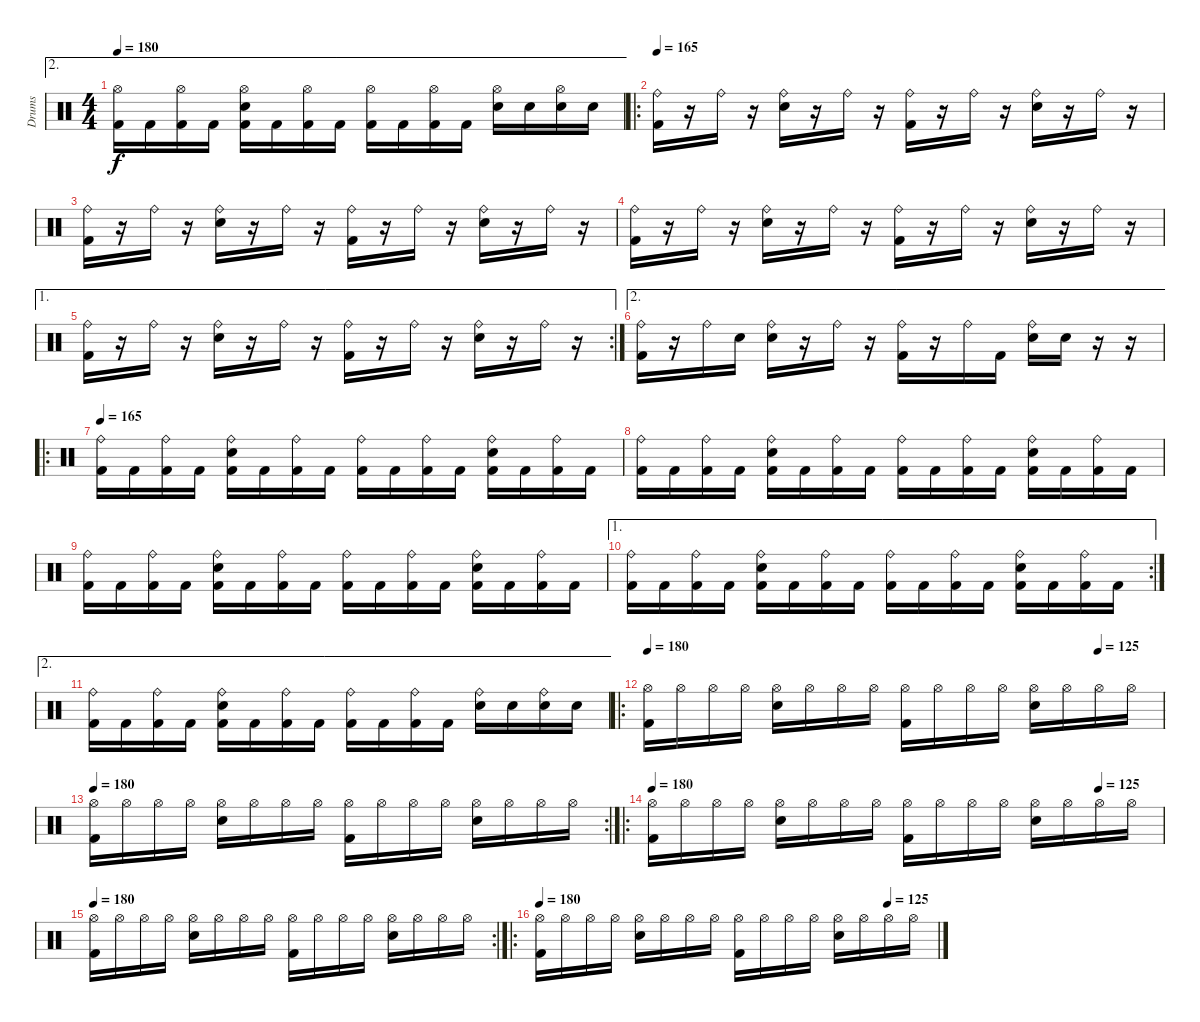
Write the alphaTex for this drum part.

\track ("Drums" "Drums") {instrument percussion}
\staff {score}
\articulation defaults
\ae 2
\ts (4 4)
\tempo 180
\clef neutral
\ks c
("Hi-Hat (open)" "Kick (hit) 2").16{dy f} "Kick (hit) 2".16 ("Hi-Hat (open)" "Kick (hit) 2").16 "Kick (hit) 2".16 ("Hi-Hat (open)" "Snare (hit) 2" "Kick (hit) 2").16 "Kick (hit) 2".16 ("Hi-Hat (open)" "Kick (hit) 2").16 "Kick (hit) 2".16 ("Hi-Hat (open)" "Kick (hit) 2").16 "Kick (hit) 2".16 ("Hi-Hat (open)" "Kick (hit) 2").16 "Kick (hit) 2".16 ("Hi-Hat (open)" "Snare (hit) 2").16 "Snare (hit) 2".16 ("Hi-Hat (open)" "Snare (hit) 2").16 "Snare (hit) 2".16 |
\ro
\tempo 165
("Ride (bell)" "Kick (hit) 2").16 r.16 "Ride (bell)".16 r.16 ("Ride (bell)" "Snare (hit) 2").16 r.16 "Ride (bell)".16 r.16 ("Ride (bell)" "Kick (hit) 2").16 r.16 "Ride (bell)".16 r.16 ("Ride (bell)" "Snare (hit) 2").16 r.16 "Ride (bell)".16 r.16 |
("Ride (bell)" "Kick (hit) 2").16 r.16 "Ride (bell)".16 r.16 ("Ride (bell)" "Snare (hit) 2").16 r.16 "Ride (bell)".16 r.16 ("Ride (bell)" "Kick (hit) 2").16 r.16 "Ride (bell)".16 r.16 ("Ride (bell)" "Snare (hit) 2").16 r.16 "Ride (bell)".16 r.16 |
("Ride (bell)" "Kick (hit) 2").16 r.16 "Ride (bell)".16 r.16 ("Ride (bell)" "Snare (hit) 2").16 r.16 "Ride (bell)".16 r.16 ("Ride (bell)" "Kick (hit) 2").16 r.16 "Ride (bell)".16 r.16 ("Ride (bell)" "Snare (hit) 2").16 r.16 "Ride (bell)".16 r.16 |
\ae 1
\rc 2
("Ride (bell)" "Kick (hit) 2").16 r.16 "Ride (bell)".16 r.16 ("Ride (bell)" "Snare (hit) 2").16 r.16 "Ride (bell)".16 r.16 ("Ride (bell)" "Kick (hit) 2").16 r.16 "Ride (bell)".16 r.16 ("Ride (bell)" "Snare (hit) 2").16 r.16 "Ride (bell)".16 r.16 |
\ae 2
("Ride (bell)" "Kick (hit) 2").16 r.16 "Ride (bell)".16 "Snare (hit) 2".16 ("Ride (bell)" "Snare (hit) 2").16 r.16 "Ride (bell)".16 r.16 ("Ride (bell)" "Kick (hit) 2").16 r.16 "Ride (bell)".16 "Kick (hit) 2".16 ("Ride (bell)" "Snare (hit) 2").16 "Snare (hit) 2".16 r.16 r.16 |
\ro
\tempo 165
("Ride (bell)" "Kick (hit) 2").16 "Kick (hit) 2".16 ("Ride (bell)" "Kick (hit) 2").16 "Kick (hit) 2".16 ("Ride (bell)" "Snare (hit) 2" "Kick (hit) 2").16 "Kick (hit) 2".16 ("Ride (bell)" "Kick (hit) 2").16 "Kick (hit) 2".16 ("Ride (bell)" "Kick (hit) 2").16 "Kick (hit) 2".16 ("Ride (bell)" "Kick (hit) 2").16 "Kick (hit) 2".16 ("Ride (bell)" "Snare (hit) 2" "Kick (hit) 2").16 "Kick (hit) 2".16 ("Ride (bell)" "Kick (hit) 2").16 "Kick (hit) 2".16 |
("Ride (bell)" "Kick (hit) 2").16 "Kick (hit) 2".16 ("Ride (bell)" "Kick (hit) 2").16 "Kick (hit) 2".16 ("Ride (bell)" "Snare (hit) 2" "Kick (hit) 2").16 "Kick (hit) 2".16 ("Ride (bell)" "Kick (hit) 2").16 "Kick (hit) 2".16 ("Ride (bell)" "Kick (hit) 2").16 "Kick (hit) 2".16 ("Ride (bell)" "Kick (hit) 2").16 "Kick (hit) 2".16 ("Ride (bell)" "Snare (hit) 2" "Kick (hit) 2").16 "Kick (hit) 2".16 ("Ride (bell)" "Kick (hit) 2").16 "Kick (hit) 2".16 |
("Ride (bell)" "Kick (hit) 2").16 "Kick (hit) 2".16 ("Ride (bell)" "Kick (hit) 2").16 "Kick (hit) 2".16 ("Ride (bell)" "Snare (hit) 2" "Kick (hit) 2").16 "Kick (hit) 2".16 ("Ride (bell)" "Kick (hit) 2").16 "Kick (hit) 2".16 ("Ride (bell)" "Kick (hit) 2").16 "Kick (hit) 2".16 ("Ride (bell)" "Kick (hit) 2").16 "Kick (hit) 2".16 ("Ride (bell)" "Snare (hit) 2" "Kick (hit) 2").16 "Kick (hit) 2".16 ("Ride (bell)" "Kick (hit) 2").16 "Kick (hit) 2".16 |
\ae 1
\rc 2
("Ride (bell)" "Kick (hit) 2").16 "Kick (hit) 2".16 ("Ride (bell)" "Kick (hit) 2").16 "Kick (hit) 2".16 ("Ride (bell)" "Snare (hit) 2" "Kick (hit) 2").16 "Kick (hit) 2".16 ("Ride (bell)" "Kick (hit) 2").16 "Kick (hit) 2".16 ("Ride (bell)" "Kick (hit) 2").16 "Kick (hit) 2".16 ("Ride (bell)" "Kick (hit) 2").16 "Kick (hit) 2".16 ("Ride (bell)" "Snare (hit) 2" "Kick (hit) 2").16 "Kick (hit) 2".16 ("Ride (bell)" "Kick (hit) 2").16 "Kick (hit) 2".16 |
\ae 2
("Ride (bell)" "Kick (hit) 2").16 "Kick (hit) 2".16 ("Ride (bell)" "Kick (hit) 2").16 "Kick (hit) 2".16 ("Ride (bell)" "Snare (hit) 2" "Kick (hit) 2").16 "Kick (hit) 2".16 ("Ride (bell)" "Kick (hit) 2").16 "Kick (hit) 2".16 ("Ride (bell)" "Kick (hit) 2").16 "Kick (hit) 2".16 ("Ride (bell)" "Kick (hit) 2").16 "Kick (hit) 2".16 ("Ride (bell)" "Snare (hit) 2").16 "Snare (hit) 2".16 ("Ride (bell)" "Snare (hit) 2").16 "Snare (hit) 2".16 |
\ro
\tempo 180
\tempo (125 0.875)
("Hi-Hat (open)" "Kick (hit) 2").16 "Hi-Hat (open)".16 "Hi-Hat (open)".16 "Hi-Hat (open)".16 ("Hi-Hat (open)" "Snare (hit) 2").16 "Hi-Hat (open)".16 "Hi-Hat (open)".16 "Hi-Hat (open)".16 ("Hi-Hat (open)" "Kick (hit) 2").16 "Hi-Hat (open)".16 "Hi-Hat (open)".16 "Hi-Hat (open)".16 ("Hi-Hat (open)" "Snare (hit) 2").16 "Hi-Hat (open)".16 "Hi-Hat (open)".16 "Hi-Hat (open)".16 |
\rc 2
\tempo 180
("Hi-Hat (open)" "Kick (hit) 2").16 "Hi-Hat (open)".16 "Hi-Hat (open)".16 "Hi-Hat (open)".16 ("Hi-Hat (open)" "Snare (hit) 2").16 "Hi-Hat (open)".16 "Hi-Hat (open)".16 "Hi-Hat (open)".16 ("Hi-Hat (open)" "Kick (hit) 2").16 "Hi-Hat (open)".16 "Hi-Hat (open)".16 "Hi-Hat (open)".16 ("Hi-Hat (open)" "Snare (hit) 2").16 "Hi-Hat (open)".16 "Hi-Hat (open)".16 "Hi-Hat (open)".16 |
\ro
\tempo 180
\tempo (125 0.875)
("Hi-Hat (open)" "Kick (hit) 2").16 "Hi-Hat (open)".16 "Hi-Hat (open)".16 "Hi-Hat (open)".16 ("Hi-Hat (open)" "Snare (hit) 2").16 "Hi-Hat (open)".16 "Hi-Hat (open)".16 "Hi-Hat (open)".16 ("Hi-Hat (open)" "Kick (hit) 2").16 "Hi-Hat (open)".16 "Hi-Hat (open)".16 "Hi-Hat (open)".16 ("Hi-Hat (open)" "Snare (hit) 2").16 "Hi-Hat (open)".16 "Hi-Hat (open)".16 "Hi-Hat (open)".16 |
\rc 2
\tempo 180
("Hi-Hat (open)" "Kick (hit) 2").16 "Hi-Hat (open)".16 "Hi-Hat (open)".16 "Hi-Hat (open)".16 ("Hi-Hat (open)" "Snare (hit) 2").16 "Hi-Hat (open)".16 "Hi-Hat (open)".16 "Hi-Hat (open)".16 ("Hi-Hat (open)" "Kick (hit) 2").16 "Hi-Hat (open)".16 "Hi-Hat (open)".16 "Hi-Hat (open)".16 ("Hi-Hat (open)" "Snare (hit) 2").16 "Hi-Hat (open)".16 "Hi-Hat (open)".16 "Hi-Hat (open)".16 |
\ro
\tempo 180
\tempo (125 0.875)
("Hi-Hat (open)" "Kick (hit) 2").16 "Hi-Hat (open)".16 "Hi-Hat (open)".16 "Hi-Hat (open)".16 ("Hi-Hat (open)" "Snare (hit) 2").16 "Hi-Hat (open)".16 "Hi-Hat (open)".16 "Hi-Hat (open)".16 ("Hi-Hat (open)" "Kick (hit) 2").16 "Hi-Hat (open)".16 "Hi-Hat (open)".16 "Hi-Hat (open)".16 ("Hi-Hat (open)" "Snare (hit) 2").16 "Hi-Hat (open)".16 "Hi-Hat (open)".16 "Hi-Hat (open)".16
